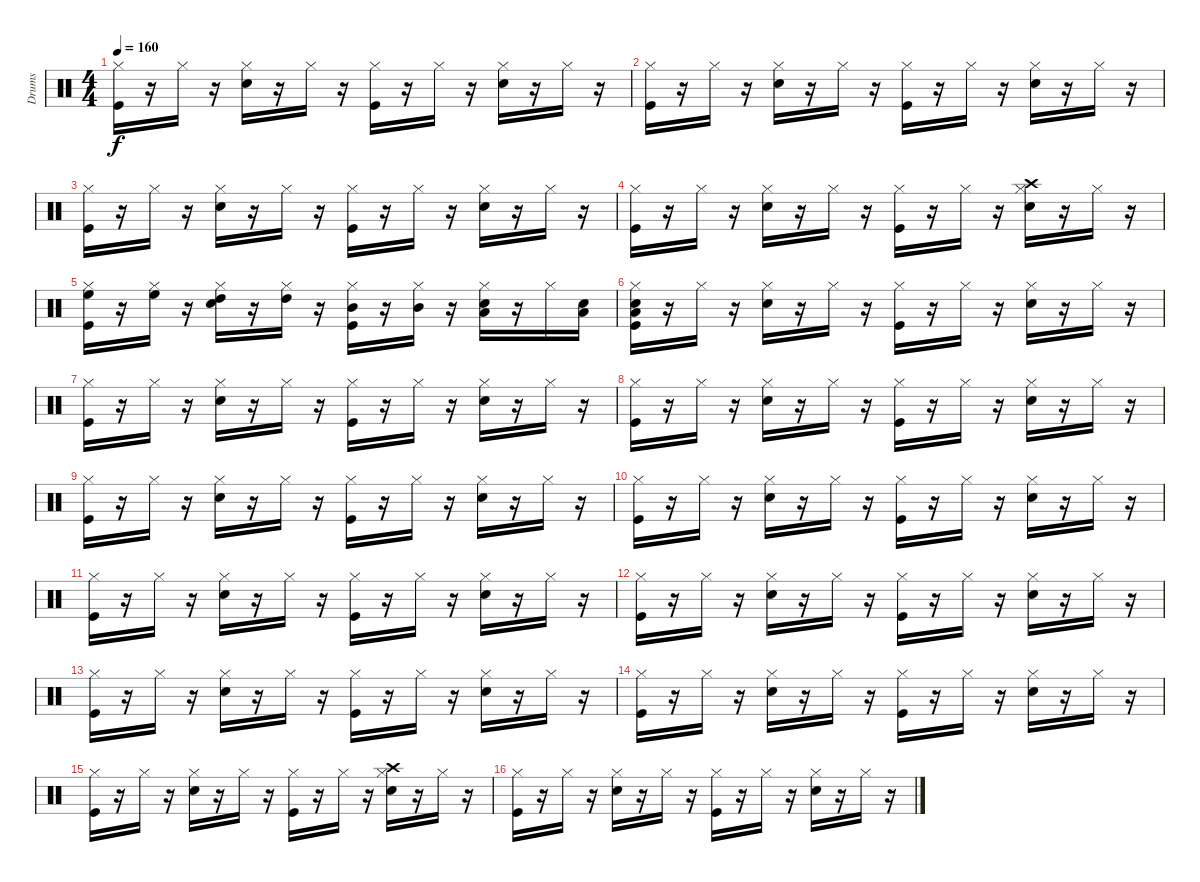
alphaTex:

\track ("Drums               " "Drums     ") {instrument percussion}
\staff {score}
\articulation defaults
\ts (4 4)
\tempo 160
\clef neutral
\ks c
("Kick (hit)" "Hi-Hat (closed)").16{dy f} r.16 "Hi-Hat (closed)".16 r.16 ("Snare (hit) 2" "Hi-Hat (closed)").16 r.16 "Hi-Hat (closed)".16 r.16 ("Kick (hit)" "Hi-Hat (closed)").16 r.16 "Hi-Hat (closed)".16 r.16 ("Snare (hit) 2" "Hi-Hat (closed)").16 r.16 "Hi-Hat (closed)".16 r.16 |
("Kick (hit)" "Hi-Hat (closed)").16 r.16 "Hi-Hat (closed)".16 r.16 ("Snare (hit) 2" "Hi-Hat (closed)").16 r.16 "Hi-Hat (closed)".16 r.16 ("Kick (hit)" "Hi-Hat (closed)").16 r.16 "Hi-Hat (closed)".16 r.16 ("Snare (hit) 2" "Hi-Hat (closed)").16 r.16 "Hi-Hat (closed)".16 r.16 |
("Kick (hit)" "Hi-Hat (closed)").16 r.16 "Hi-Hat (closed)".16 r.16 ("Snare (hit) 2" "Hi-Hat (closed)").16 r.16 "Hi-Hat (closed)".16 r.16 ("Kick (hit)" "Hi-Hat (closed)").16 r.16 "Hi-Hat (closed)".16 r.16 ("Snare (hit) 2" "Hi-Hat (closed)").16 r.16 "Hi-Hat (closed)".16 r.16 |
("Kick (hit)" "Hi-Hat (closed)").16 r.16 "Hi-Hat (closed)".16 r.16 ("Snare (hit) 2" "Hi-Hat (closed)").16 r.16 "Hi-Hat (closed)".16 r.16 ("Kick (hit)" "Hi-Hat (closed)").16 r.16 "Hi-Hat (closed)".16 r.16 ("Snare (hit) 2" "Hi-Hat (closed)" "Crash high (hit)").16 r.16 "Hi-Hat (closed)".16 r.16 |
("Kick (hit)" "Hi-Hat (closed)" "High Floor Tom (hit)").16 r.16 ("Hi-Hat (closed)" "High Floor Tom (hit)").16 r.16 ("Snare (hit) 2" "Hi-Hat (closed)" "High Tom (hit)").16 r.16 ("Hi-Hat (closed)" "High Tom (hit)").16 r.16 ("Kick (hit)" "Hi-Hat (closed)" "Mid Tom (hit)").16 r.16 ("Hi-Hat (closed)" "Mid Tom (hit)").16 r.16 ("Snare (hit) 2" "Hi-Hat (closed)" "Low Tom (hit)").16 r.16 "Hi-Hat (closed)".16 ("Snare (hit)" "Low Tom (hit)").16 |
("Snare (hit)" "Kick (hit)" "Hi-Hat (closed)" "Low Tom (hit)").16 r.16 "Hi-Hat (closed)".16 r.16 ("Snare (hit) 2" "Hi-Hat (closed)").16 r.16 "Hi-Hat (closed)".16 r.16 ("Kick (hit)" "Hi-Hat (closed)").16 r.16 "Hi-Hat (closed)".16 r.16 ("Snare (hit) 2" "Hi-Hat (closed)").16 r.16 "Hi-Hat (closed)".16 r.16 |
("Kick (hit)" "Hi-Hat (closed)").16 r.16 "Hi-Hat (closed)".16 r.16 ("Snare (hit) 2" "Hi-Hat (closed)").16 r.16 "Hi-Hat (closed)".16 r.16 ("Kick (hit)" "Hi-Hat (closed)").16 r.16 "Hi-Hat (closed)".16 r.16 ("Snare (hit) 2" "Hi-Hat (closed)").16 r.16 "Hi-Hat (closed)".16 r.16 |
("Kick (hit)" "Hi-Hat (closed)").16 r.16 "Hi-Hat (closed)".16 r.16 ("Snare (hit) 2" "Hi-Hat (closed)").16 r.16 "Hi-Hat (closed)".16 r.16 ("Kick (hit)" "Hi-Hat (closed)").16 r.16 "Hi-Hat (closed)".16 r.16 ("Snare (hit) 2" "Hi-Hat (closed)").16 r.16 "Hi-Hat (closed)".16 r.16 |
("Kick (hit)" "Hi-Hat (closed)").16 r.16 "Hi-Hat (closed)".16 r.16 ("Snare (hit) 2" "Hi-Hat (closed)").16 r.16 "Hi-Hat (closed)".16 r.16 ("Kick (hit)" "Hi-Hat (closed)").16 r.16 "Hi-Hat (closed)".16 r.16 ("Snare (hit) 2" "Hi-Hat (closed)").16 r.16 "Hi-Hat (closed)".16 r.16 |
("Kick (hit)" "Hi-Hat (closed)").16 r.16 "Hi-Hat (closed)".16 r.16 ("Snare (hit) 2" "Hi-Hat (closed)").16 r.16 "Hi-Hat (closed)".16 r.16 ("Kick (hit)" "Hi-Hat (closed)").16 r.16 "Hi-Hat (closed)".16 r.16 ("Snare (hit) 2" "Hi-Hat (closed)").16 r.16 "Hi-Hat (closed)".16 r.16 |
("Kick (hit)" "Hi-Hat (closed)").16 r.16 "Hi-Hat (closed)".16 r.16 ("Snare (hit) 2" "Hi-Hat (closed)").16 r.16 "Hi-Hat (closed)".16 r.16 ("Kick (hit)" "Hi-Hat (closed)").16 r.16 "Hi-Hat (closed)".16 r.16 ("Snare (hit) 2" "Hi-Hat (closed)").16 r.16 "Hi-Hat (closed)".16 r.16 |
("Kick (hit)" "Hi-Hat (closed)").16 r.16 "Hi-Hat (closed)".16 r.16 ("Snare (hit) 2" "Hi-Hat (closed)").16 r.16 "Hi-Hat (closed)".16 r.16 ("Kick (hit)" "Hi-Hat (closed)").16 r.16 "Hi-Hat (closed)".16 r.16 ("Snare (hit) 2" "Hi-Hat (closed)").16 r.16 "Hi-Hat (closed)".16 r.16 |
("Kick (hit)" "Hi-Hat (closed)").16 r.16 "Hi-Hat (closed)".16 r.16 ("Snare (hit) 2" "Hi-Hat (closed)").16 r.16 "Hi-Hat (closed)".16 r.16 ("Kick (hit)" "Hi-Hat (closed)").16 r.16 "Hi-Hat (closed)".16 r.16 ("Snare (hit) 2" "Hi-Hat (closed)").16 r.16 "Hi-Hat (closed)".16 r.16 |
("Kick (hit)" "Hi-Hat (closed)").16 r.16 "Hi-Hat (closed)".16 r.16 ("Snare (hit) 2" "Hi-Hat (closed)").16 r.16 "Hi-Hat (closed)".16 r.16 ("Kick (hit)" "Hi-Hat (closed)").16 r.16 "Hi-Hat (closed)".16 r.16 ("Snare (hit) 2" "Hi-Hat (closed)").16 r.16 "Hi-Hat (closed)".16 r.16 |
("Kick (hit)" "Hi-Hat (closed)").16 r.16 "Hi-Hat (closed)".16 r.16 ("Snare (hit) 2" "Hi-Hat (closed)").16 r.16 "Hi-Hat (closed)".16 r.16 ("Kick (hit)" "Hi-Hat (closed)").16 r.16 "Hi-Hat (closed)".16 r.16 ("Snare (hit) 2" "Hi-Hat (closed)" "Crash high (hit)").16 r.16 "Hi-Hat (closed)".16 r.16 |
("Kick (hit)" "Hi-Hat (closed)").16 r.16 "Hi-Hat (closed)".16 r.16 ("Snare (hit) 2" "Hi-Hat (closed)").16 r.16 "Hi-Hat (closed)".16 r.16 ("Kick (hit)" "Hi-Hat (closed)").16 r.16 "Hi-Hat (closed)".16 r.16 ("Snare (hit) 2" "Hi-Hat (closed)").16 r.16 "Hi-Hat (closed)".16 r.16
